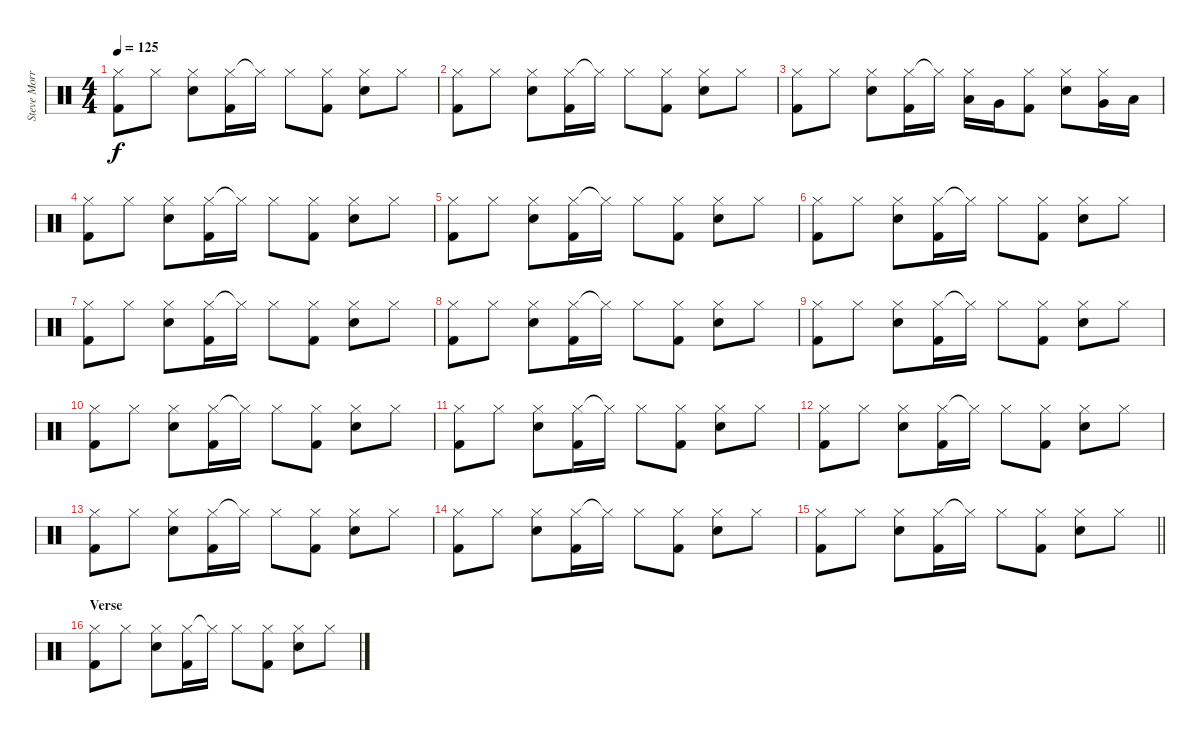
\track ("Steve Morris" "Steve Morr") {instrument percussion}
\staff {score}
\articulation defaults
\ts (4 4)
\tempo 125
\clef neutral
\ks c
("Hi-Hat (closed)" "Kick (hit) 2").8{dy f} "Hi-Hat (closed)".8 ("Hi-Hat (closed)" "Electric Snare (hit)").8 ("Hi-Hat (closed)" "Kick (hit) 2").16 "Hi-Hat (closed)"{t}.16 "Hi-Hat (closed)".8 ("Hi-Hat (closed)" "Kick (hit) 2").8 ("Hi-Hat (closed)" "Electric Snare (hit)").8 "Hi-Hat (closed)".8 |
("Hi-Hat (closed)" "Kick (hit) 2").8 "Hi-Hat (closed)".8 ("Hi-Hat (closed)" "Electric Snare (hit)").8 ("Hi-Hat (closed)" "Kick (hit) 2").16 "Hi-Hat (closed)"{t}.16 "Hi-Hat (closed)".8 ("Hi-Hat (closed)" "Kick (hit) 2").8 ("Hi-Hat (closed)" "Electric Snare (hit)").8 "Hi-Hat (closed)".8 |
("Hi-Hat (closed)" "Kick (hit) 2").8 "Hi-Hat (closed)".8 ("Hi-Hat (closed)" "Electric Snare (hit)").8 ("Hi-Hat (closed)" "Kick (hit) 2").16 "Hi-Hat (closed)"{t}.16 ("Hi-Hat (closed)" "Low Tom (hit)").16 "Very Low Tom (hit)".16 ("Hi-Hat (closed)" "Kick (hit) 2").8 ("Hi-Hat (closed)" "Electric Snare (hit)").8 ("Hi-Hat (closed)" "Very Low Tom (hit)").16 "Low Floor Tom (hit)".16 |
("Hi-Hat (closed)" "Kick (hit) 2").8 "Hi-Hat (closed)".8 ("Hi-Hat (closed)" "Electric Snare (hit)").8 ("Hi-Hat (closed)" "Kick (hit) 2").16 "Hi-Hat (closed)"{t}.16 "Hi-Hat (closed)".8 ("Hi-Hat (closed)" "Kick (hit) 2").8 ("Hi-Hat (closed)" "Electric Snare (hit)").8 "Hi-Hat (closed)".8 |
("Hi-Hat (closed)" "Kick (hit) 2").8 "Hi-Hat (closed)".8 ("Hi-Hat (closed)" "Electric Snare (hit)").8 ("Hi-Hat (closed)" "Kick (hit) 2").16 "Hi-Hat (closed)"{t}.16 "Hi-Hat (closed)".8 ("Hi-Hat (closed)" "Kick (hit) 2").8 ("Hi-Hat (closed)" "Electric Snare (hit)").8 "Hi-Hat (closed)".8 |
("Hi-Hat (closed)" "Kick (hit) 2").8 "Hi-Hat (closed)".8 ("Hi-Hat (closed)" "Electric Snare (hit)").8 ("Hi-Hat (closed)" "Kick (hit) 2").16 "Hi-Hat (closed)"{t}.16 "Hi-Hat (closed)".8 ("Hi-Hat (closed)" "Kick (hit) 2").8 ("Hi-Hat (closed)" "Electric Snare (hit)").8 "Hi-Hat (closed)".8 |
("Hi-Hat (closed)" "Kick (hit) 2").8 "Hi-Hat (closed)".8 ("Hi-Hat (closed)" "Electric Snare (hit)").8 ("Hi-Hat (closed)" "Kick (hit) 2").16 "Hi-Hat (closed)"{t}.16 "Hi-Hat (closed)".8 ("Hi-Hat (closed)" "Kick (hit) 2").8 ("Hi-Hat (closed)" "Electric Snare (hit)").8 "Hi-Hat (closed)".8 |
("Hi-Hat (closed)" "Kick (hit) 2").8 "Hi-Hat (closed)".8 ("Hi-Hat (closed)" "Electric Snare (hit)").8 ("Hi-Hat (closed)" "Kick (hit) 2").16 "Hi-Hat (closed)"{t}.16 "Hi-Hat (closed)".8 ("Hi-Hat (closed)" "Kick (hit) 2").8 ("Hi-Hat (closed)" "Electric Snare (hit)").8 "Hi-Hat (closed)".8 |
("Hi-Hat (closed)" "Kick (hit) 2").8 "Hi-Hat (closed)".8 ("Hi-Hat (closed)" "Electric Snare (hit)").8 ("Hi-Hat (closed)" "Kick (hit) 2").16 "Hi-Hat (closed)"{t}.16 "Hi-Hat (closed)".8 ("Hi-Hat (closed)" "Kick (hit) 2").8 ("Hi-Hat (closed)" "Electric Snare (hit)").8 "Hi-Hat (closed)".8 |
("Hi-Hat (closed)" "Kick (hit) 2").8 "Hi-Hat (closed)".8 ("Hi-Hat (closed)" "Electric Snare (hit)").8 ("Hi-Hat (closed)" "Kick (hit) 2").16 "Hi-Hat (closed)"{t}.16 "Hi-Hat (closed)".8 ("Hi-Hat (closed)" "Kick (hit) 2").8 ("Hi-Hat (closed)" "Electric Snare (hit)").8 "Hi-Hat (closed)".8 |
("Hi-Hat (closed)" "Kick (hit) 2").8 "Hi-Hat (closed)".8 ("Hi-Hat (closed)" "Electric Snare (hit)").8 ("Hi-Hat (closed)" "Kick (hit) 2").16 "Hi-Hat (closed)"{t}.16 "Hi-Hat (closed)".8 ("Hi-Hat (closed)" "Kick (hit) 2").8 ("Hi-Hat (closed)" "Electric Snare (hit)").8 "Hi-Hat (closed)".8 |
("Hi-Hat (closed)" "Kick (hit) 2").8 "Hi-Hat (closed)".8 ("Hi-Hat (closed)" "Electric Snare (hit)").8 ("Hi-Hat (closed)" "Kick (hit) 2").16 "Hi-Hat (closed)"{t}.16 "Hi-Hat (closed)".8 ("Hi-Hat (closed)" "Kick (hit) 2").8 ("Hi-Hat (closed)" "Electric Snare (hit)").8 "Hi-Hat (closed)".8 |
("Hi-Hat (closed)" "Kick (hit) 2").8 "Hi-Hat (closed)".8 ("Hi-Hat (closed)" "Electric Snare (hit)").8 ("Hi-Hat (closed)" "Kick (hit) 2").16 "Hi-Hat (closed)"{t}.16 "Hi-Hat (closed)".8 ("Hi-Hat (closed)" "Kick (hit) 2").8 ("Hi-Hat (closed)" "Electric Snare (hit)").8 "Hi-Hat (closed)".8 |
("Hi-Hat (closed)" "Kick (hit) 2").8 "Hi-Hat (closed)".8 ("Hi-Hat (closed)" "Electric Snare (hit)").8 ("Hi-Hat (closed)" "Kick (hit) 2").16 "Hi-Hat (closed)"{t}.16 "Hi-Hat (closed)".8 ("Hi-Hat (closed)" "Kick (hit) 2").8 ("Hi-Hat (closed)" "Electric Snare (hit)").8 "Hi-Hat (closed)".8 |
\barLineRight lightlight
("Hi-Hat (closed)" "Kick (hit) 2").8 "Hi-Hat (closed)".8 ("Hi-Hat (closed)" "Electric Snare (hit)").8 ("Hi-Hat (closed)" "Kick (hit) 2").16 "Hi-Hat (closed)"{t}.16 "Hi-Hat (closed)".8 ("Hi-Hat (closed)" "Kick (hit) 2").8 ("Hi-Hat (closed)" "Electric Snare (hit)").8 "Hi-Hat (closed)".8 |
\section ("" "Verse")
("Hi-Hat (closed)" "Kick (hit) 2").8 "Hi-Hat (closed)".8 ("Hi-Hat (closed)" "Electric Snare (hit)").8 ("Hi-Hat (closed)" "Kick (hit) 2").16 "Hi-Hat (closed)"{t}.16 "Hi-Hat (closed)".8 ("Hi-Hat (closed)" "Kick (hit) 2").8 ("Hi-Hat (closed)" "Electric Snare (hit)").8 "Hi-Hat (closed)".8
